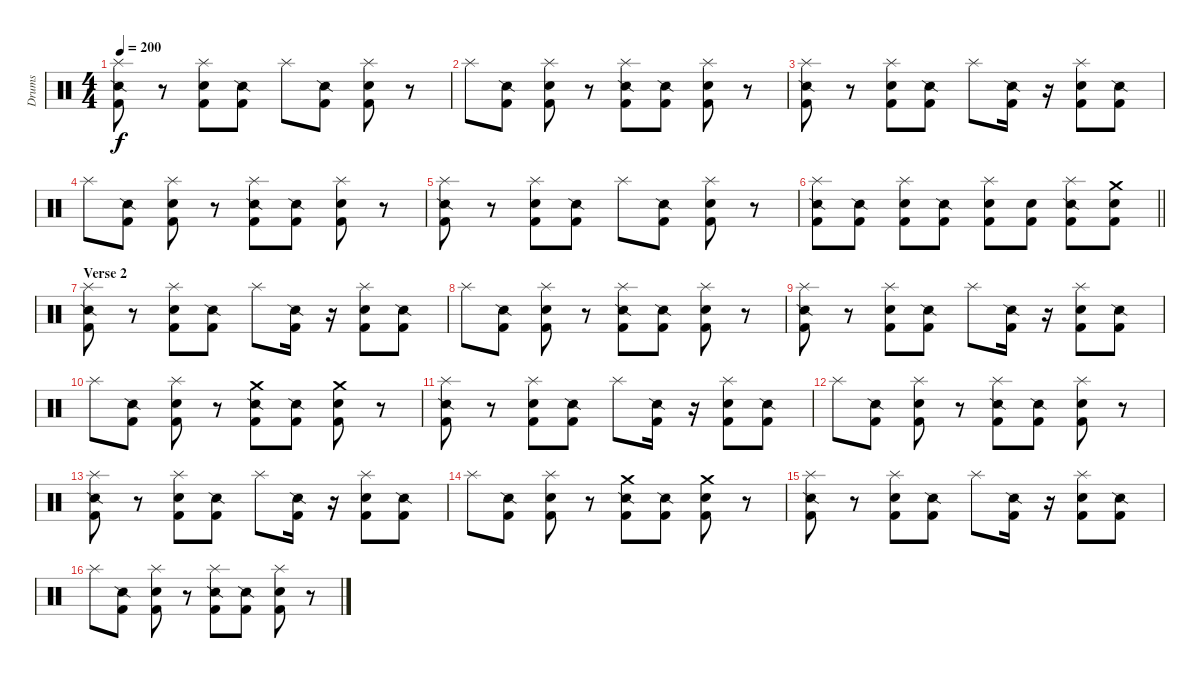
\track ("Drums" "Drums") {instrument percussion}
\staff {score}
\articulation defaults
\ts (4 4)
\tempo 200
\clef neutral
\ks c
("Splash (hit)" "Snare (side stick) 2" "Kick (hit) 2").8{dy f} r.8 ("Splash (hit)" "Snare (hit) 2" "Kick (hit) 2").8 ("Snare (side stick) 2" "Kick (hit) 2").8 "Splash (hit)".8 ("Snare (side stick) 2" "Kick (hit) 2").8 ("Splash (hit)" "Kick (hit) 2" "Snare (hit) 2").8 r.8 |
"Splash (hit)".8 ("Snare (side stick) 2" "Kick (hit) 2").8 ("Splash (hit)" "Snare (hit) 2" "Kick (hit) 2").8 r.8 ("Splash (hit)" "Snare (side stick) 2" "Kick (hit) 2").8 ("Snare (side stick) 2" "Kick (hit) 2").8 ("Splash (hit)" "Snare (hit) 2" "Kick (hit) 2").8 r.8 |
("Splash (hit)" "Snare (side stick) 2" "Kick (hit) 2").8 r.8 ("Splash (hit)" "Snare (hit) 2" "Kick (hit) 2").8 ("Snare (side stick) 2" "Kick (hit) 2").8 "Splash (hit)".8 ("Snare (side stick) 2" "Kick (hit) 2").16 r.16 ("Splash (hit)" "Snare (hit) 2" "Kick (hit) 2").8 ("Snare (side stick) 2" "Kick (hit) 2").8 |
"Splash (hit)".8 ("Snare (side stick) 2" "Kick (hit) 2").8 ("Splash (hit)" "Snare (hit) 2" "Kick (hit) 2").8 r.8 ("Splash (hit)" "Snare (side stick) 2" "Kick (hit) 2").8 ("Snare (side stick) 2" "Kick (hit) 2").8 ("Splash (hit)" "Snare (hit) 2" "Kick (hit) 2").8 r.8 |
("Splash (hit)" "Snare (side stick) 2" "Kick (hit) 2").8 r.8 ("Splash (hit)" "Snare (hit) 2" "Kick (hit) 2").8 ("Snare (side stick) 2" "Kick (hit) 2").8 "Splash (hit)".8 ("Snare (side stick) 2" "Kick (hit) 2").8 ("Splash (hit)" "Kick (hit) 2" "Snare (hit) 2").8 r.8 |
\barLineRight lightlight
("Splash (hit)" "Snare (side stick) 2" "Kick (hit) 2").8 ("Snare (side stick) 2" "Kick (hit) 2").8 ("Splash (hit)" "Kick (hit) 2" "Snare (hit) 2").8 ("Snare (side stick) 2" "Kick (hit) 2").8 ("Splash (hit)" "Snare (hit) 2" "Kick (hit) 2").8 ("Snare (hit) 2" "Kick (hit) 2").8 ("Splash (hit)" "Snare (side stick) 2" "Kick (hit) 2").8 ("Crash medium (hit)" "Snare (hit) 2" "Kick (hit) 2").8 |
\section ("" "Verse 2")
("Splash (hit)" "Snare (side stick) 2" "Kick (hit) 2").8 r.8 ("Splash (hit)" "Snare (hit) 2" "Kick (hit) 2").8 ("Snare (side stick) 2" "Kick (hit) 2").8 "Splash (hit)".8 ("Snare (side stick) 2" "Kick (hit) 2").16 r.16 ("Splash (hit)" "Snare (hit) 2" "Kick (hit) 2").8 ("Snare (side stick) 2" "Kick (hit) 2").8 |
"Splash (hit)".8 ("Snare (side stick) 2" "Kick (hit) 2").8 ("Splash (hit)" "Snare (hit) 2" "Kick (hit) 2").8 r.8 ("Splash (hit)" "Snare (side stick) 2" "Kick (hit) 2").8 ("Snare (side stick) 2" "Kick (hit) 2").8 ("Splash (hit)" "Snare (hit) 2" "Kick (hit) 2").8 r.8 |
("Splash (hit)" "Snare (side stick) 2" "Kick (hit) 2").8 r.8 ("Splash (hit)" "Snare (hit) 2" "Kick (hit) 2").8 ("Snare (side stick) 2" "Kick (hit) 2").8 "Splash (hit)".8 ("Snare (side stick) 2" "Kick (hit) 2").16 r.16 ("Splash (hit)" "Snare (hit) 2" "Kick (hit) 2").8 ("Snare (side stick) 2" "Kick (hit) 2").8 |
"Splash (hit)".8 ("Snare (side stick) 2" "Kick (hit) 2").8 ("Splash (hit)" "Snare (hit) 2" "Kick (hit) 2").8 r.8 ("Crash medium (hit)" "Snare (side stick) 2" "Kick (hit) 2").8 ("Snare (side stick) 2" "Kick (hit) 2").8 ("Crash medium (hit)" "Snare (hit) 2" "Kick (hit) 2").8 r.8 |
("Splash (hit)" "Snare (side stick) 2" "Kick (hit) 2").8 r.8 ("Splash (hit)" "Snare (hit) 2" "Kick (hit) 2").8 ("Snare (side stick) 2" "Kick (hit) 2").8 "Splash (hit)".8 ("Snare (side stick) 2" "Kick (hit) 2").16 r.16 ("Splash (hit)" "Snare (hit) 2" "Kick (hit) 2").8 ("Snare (side stick) 2" "Kick (hit) 2").8 |
"Splash (hit)".8 ("Snare (side stick) 2" "Kick (hit) 2").8 ("Splash (hit)" "Snare (hit) 2" "Kick (hit) 2").8 r.8 ("Splash (hit)" "Snare (side stick) 2" "Kick (hit) 2").8 ("Snare (side stick) 2" "Kick (hit) 2").8 ("Splash (hit)" "Snare (hit) 2" "Kick (hit) 2").8 r.8 |
("Splash (hit)" "Snare (side stick) 2" "Kick (hit) 2").8 r.8 ("Splash (hit)" "Snare (hit) 2" "Kick (hit) 2").8 ("Snare (side stick) 2" "Kick (hit) 2").8 "Splash (hit)".8 ("Snare (side stick) 2" "Kick (hit) 2").16 r.16 ("Splash (hit)" "Snare (hit) 2" "Kick (hit) 2").8 ("Snare (side stick) 2" "Kick (hit) 2").8 |
"Splash (hit)".8 ("Snare (side stick) 2" "Kick (hit) 2").8 ("Splash (hit)" "Snare (hit) 2" "Kick (hit) 2").8 r.8 ("Crash medium (hit)" "Snare (side stick) 2" "Kick (hit) 2").8 ("Snare (side stick) 2" "Kick (hit) 2").8 ("Crash medium (hit)" "Snare (hit) 2" "Kick (hit) 2").8 r.8 |
("Splash (hit)" "Snare (side stick) 2" "Kick (hit) 2").8 r.8 ("Splash (hit)" "Snare (hit) 2" "Kick (hit) 2").8 ("Snare (side stick) 2" "Kick (hit) 2").8 "Splash (hit)".8 ("Snare (side stick) 2" "Kick (hit) 2").16 r.16 ("Splash (hit)" "Snare (hit) 2" "Kick (hit) 2").8 ("Snare (side stick) 2" "Kick (hit) 2").8 |
"Splash (hit)".8 ("Snare (side stick) 2" "Kick (hit) 2").8 ("Splash (hit)" "Snare (hit) 2" "Kick (hit) 2").8 r.8 ("Splash (hit)" "Snare (side stick) 2" "Kick (hit) 2").8 ("Snare (side stick) 2" "Kick (hit) 2").8 ("Splash (hit)" "Snare (hit) 2" "Kick (hit) 2").8 r.8
